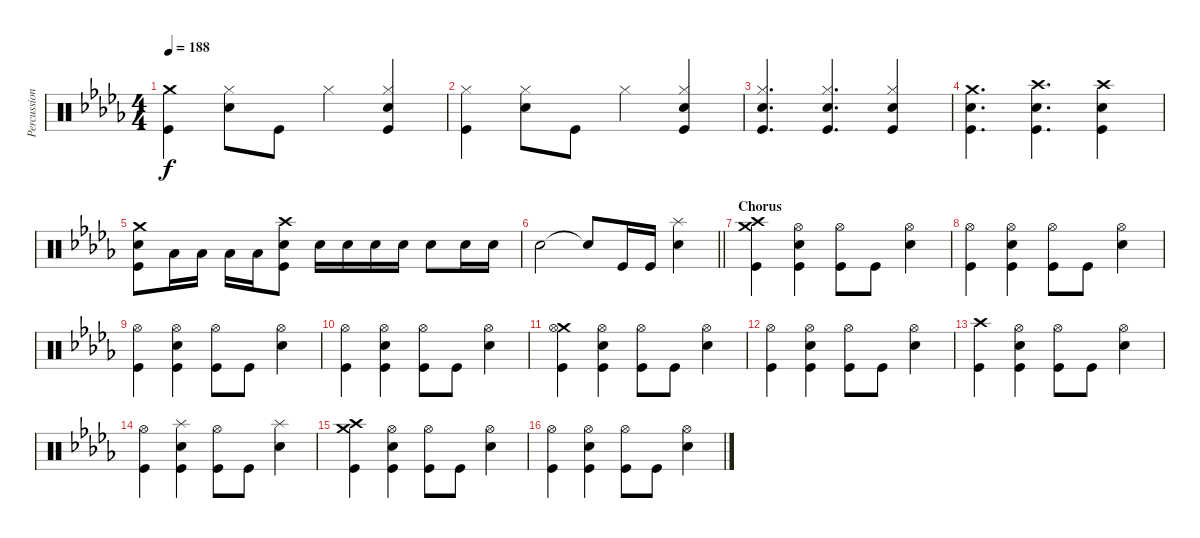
\track ("Percussion" "Percussion") {instrument percussion}
\staff {score}
\articulation defaults
\ts (4 4)
\tempo 188
\clef neutral
\ks db
("Crash medium (hit)" "Kick (hit)").4{dy f} ("Hi-Hat (closed)" "Electric Snare (hit)").8 "Kick (hit)".8 "Hi-Hat (closed)".4 ("Hi-Hat (closed)" "Electric Snare (hit)" "Kick (hit)").4 |
("Hi-Hat (closed)" "Kick (hit)").4 ("Hi-Hat (closed)" "Electric Snare (hit)").8 "Kick (hit)".8 "Hi-Hat (closed)".4 ("Hi-Hat (closed)" "Electric Snare (hit)" "Kick (hit)").4 |
("Hi-Hat (closed)" "Electric Snare (hit)" "Kick (hit)").4{d} ("Hi-Hat (closed)" "Electric Snare (hit)" "Kick (hit)").4{d} ("Hi-Hat (closed)" "Electric Snare (hit)" "Kick (hit)").4 |
("Crash medium (hit)" "Electric Snare (hit)" "Kick (hit)").4{d} ("Crash high (hit)" "Electric Snare (hit)" "Kick (hit)").4{d} ("Crash high (hit)" "Electric Snare (hit)" "Kick (hit)").4 |
("Crash medium (hit)" "Electric Snare (hit)" "Kick (hit)").8 "Low Floor Tom (hit)".16 "Low Floor Tom (hit)".16 "Low Floor Tom (hit)".16 "Low Floor Tom (hit)".16 ("Crash high (hit)" "Electric Snare (hit)" "Kick (hit)").8 "Electric Snare (hit)".16 "Electric Snare (hit)".16 "Electric Snare (hit)".16 "Electric Snare (hit)".16 "Electric Snare (hit)".8 "Electric Snare (hit)".16 "Electric Snare (hit)".16 |
\barLineRight lightlight "Electric Snare (hit)".2 "Snare (hit)"{t}.8 "Kick (hit)".16 "Kick (hit)".16
("Splash (hit)" "Electric Snare (hit)").4 |
\section ("" "Chorus")
("Crash high (hit)" "Crash medium (hit)" "Kick (hit)").4 ("Hi-Hat (open)" "Electric Snare (hit)" "Kick (hit)").4 ("Hi-Hat (open)" "Kick (hit)").8 "Kick (hit)".8 ("Hi-Hat (open)" "Electric Snare (hit)").4 |
("Hi-Hat (open)" "Kick (hit)").4 ("Hi-Hat (open)" "Electric Snare (hit)" "Kick (hit)").4 ("Hi-Hat (open)" "Kick (hit)").8 "Kick (hit)".8 ("Hi-Hat (open)" "Electric Snare (hit)").4 |
("Hi-Hat (open)" "Kick (hit)").4 ("Hi-Hat (open)" "Electric Snare (hit)" "Kick (hit)").4 ("Hi-Hat (open)" "Kick (hit)").8 "Kick (hit)".8 ("Hi-Hat (open)" "Electric Snare (hit)").4 |
("Hi-Hat (open)" "Kick (hit)").4 ("Hi-Hat (open)" "Electric Snare (hit)" "Kick (hit)").4 ("Hi-Hat (open)" "Kick (hit)").8 "Kick (hit)".8 ("Hi-Hat (open)" "Electric Snare (hit)").4 |
("Crash medium (hit)" "Hi-Hat (open)" "Kick (hit)").4 ("Hi-Hat (open)" "Electric Snare (hit)" "Kick (hit)").4 ("Hi-Hat (open)" "Kick (hit)").8 "Kick (hit)".8 ("Hi-Hat (open)" "Electric Snare (hit)").4 |
("Hi-Hat (open)" "Kick (hit)").4 ("Hi-Hat (open)" "Electric Snare (hit)" "Kick (hit)").4 ("Hi-Hat (open)" "Kick (hit)").8 "Kick (hit)".8 ("Hi-Hat (open)" "Electric Snare (hit)").4 |
("Crash high (hit)" "Kick (hit)").4 ("Hi-Hat (open)" "Electric Snare (hit)" "Kick (hit)").4 ("Hi-Hat (open)" "Kick (hit)").8 "Kick (hit)".8 ("Hi-Hat (open)" "Electric Snare (hit)").4 |
("Hi-Hat (open)" "Kick (hit)").4 ("Splash (hit)" "Electric Snare (hit)" "Kick (hit)").4 ("Hi-Hat (open)" "Kick (hit)").8 "Kick (hit)".8 ("Splash (hit)" "Electric Snare (hit)").4 |
("Crash high (hit)" "Crash medium (hit)" "Kick (hit)").4 ("Hi-Hat (open)" "Electric Snare (hit)" "Kick (hit)").4 ("Hi-Hat (open)" "Kick (hit)").8 "Kick (hit)".8 ("Hi-Hat (open)" "Electric Snare (hit)").4 |
("Hi-Hat (open)" "Kick (hit)").4 ("Hi-Hat (open)" "Electric Snare (hit)" "Kick (hit)").4 ("Hi-Hat (open)" "Kick (hit)").8 "Kick (hit)".8 ("Hi-Hat (open)" "Electric Snare (hit)").4
